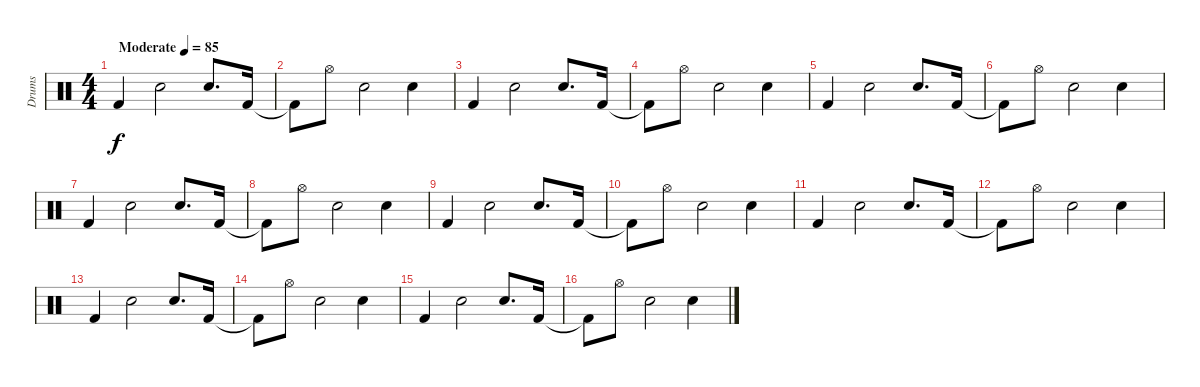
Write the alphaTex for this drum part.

\track ("Drums" "Drums") {instrument percussion}
\staff {score}
\articulation defaults
\ts (4 4)
\tempo (85 "Moderate")
\clef neutral
\ks c "Kick (hit) 2".4{dy f} "Snare (hit) 2".2 "Snare (hit) 2".8{d} "Kick (hit) 2".16
|
"Kick (hit) 2"{t}.8 "Hi-Hat (open)".8 "Snare (hit) 2".2 "Snare (hit) 2".4 |
"Kick (hit) 2".4 "Snare (hit) 2".2 "Snare (hit) 2".8{d} "Kick (hit) 2".16 |
"Kick (hit) 2"{t}.8 "Hi-Hat (open)".8 "Snare (hit) 2".2 "Snare (hit) 2".4 |
"Kick (hit) 2".4 "Snare (hit) 2".2 "Snare (hit) 2".8{d} "Kick (hit) 2".16 |
"Kick (hit) 2"{t}.8 "Hi-Hat (open)".8 "Snare (hit) 2".2 "Snare (hit) 2".4 |
"Kick (hit) 2".4 "Snare (hit) 2".2 "Snare (hit) 2".8{d} "Kick (hit) 2".16 |
"Kick (hit) 2"{t}.8 "Hi-Hat (open)".8 "Snare (hit) 2".2 "Snare (hit) 2".4 |
"Kick (hit) 2".4 "Snare (hit) 2".2 "Snare (hit) 2".8{d} "Kick (hit) 2".16 |
"Kick (hit) 2"{t}.8 "Hi-Hat (open)".8 "Snare (hit) 2".2 "Snare (hit) 2".4 |
"Kick (hit) 2".4 "Snare (hit) 2".2 "Snare (hit) 2".8{d} "Kick (hit) 2".16 |
"Kick (hit) 2"{t}.8 "Hi-Hat (open)".8 "Snare (hit) 2".2 "Snare (hit) 2".4 |
"Kick (hit) 2".4 "Snare (hit) 2".2 "Snare (hit) 2".8{d} "Kick (hit) 2".16 |
"Kick (hit) 2"{t}.8 "Hi-Hat (open)".8 "Snare (hit) 2".2 "Snare (hit) 2".4 |
"Kick (hit) 2".4 "Snare (hit) 2".2 "Snare (hit) 2".8{d} "Kick (hit) 2".16 |
"Kick (hit) 2"{t}.8 "Hi-Hat (open)".8 "Snare (hit) 2".2 "Snare (hit) 2".4
